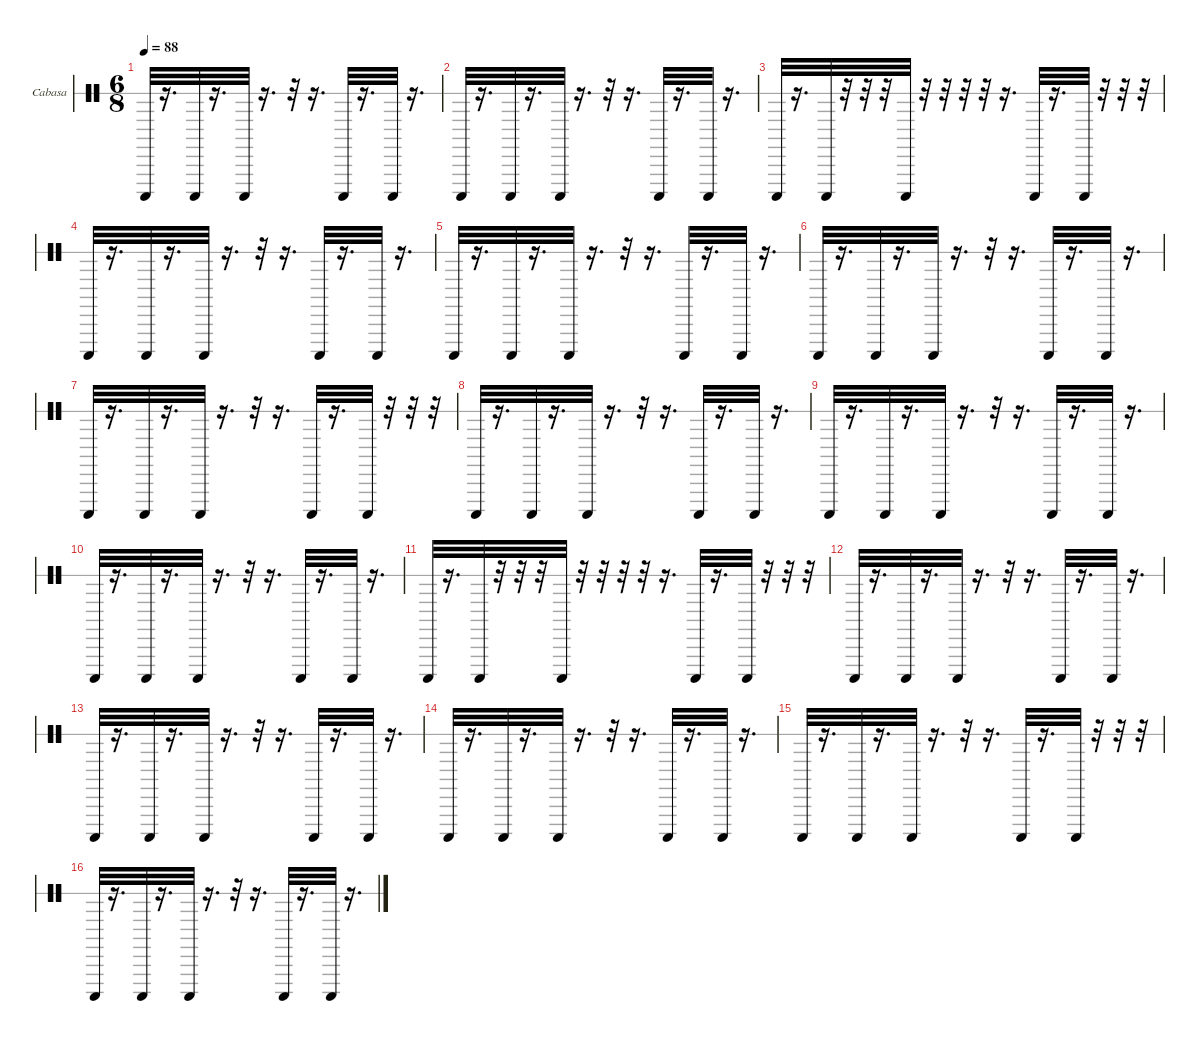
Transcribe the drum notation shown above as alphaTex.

\hideDynamics
\bracketExtendMode nobrackets
\firstSystemTrackNameOrientation horizontal
\otherSystemsTrackNameOrientation horizontal
\track ("Cabasa" "Cabasa") {instrument percussion}
\staff {score 1}
\articulation defaults
\ts (6 8)
\tempo 88
\clef neutral
\ks c "Cabasa (hit)".32{dy fff}
r.16{d} "Cabasa (hit)".32{dy mf} r.16{d} "Cabasa (hit)".32{dy mp} r.16{d} r.32 r.16{d} "Cabasa (hit)".32{dy mf} r.16{d} "Cabasa (hit)".32{dy mp} r.16{d} |
"Cabasa (hit)".32{dy fff} r.16{d} "Cabasa (hit)".32{dy mf} r.16{d} "Cabasa (hit)".32{dy mp} r.16{d} r.32 r.16{d} "Cabasa (hit)".32{dy mf} r.16{d} "Cabasa (hit)".32{dy mp} r.16{d} |
"Cabasa (hit)".32{dy fff} r.16{d} "Cabasa (hit)".32{dy mf} r.32 r.32 r.32 "Cabasa (hit)".32{dy ff} r.32 r.32 r.32 r.32 r.16{d} "Cabasa (hit)".32 r.16{d} "Cabasa (hit)".32{dy f} r.32 r.32 r.32 |
"Cabasa (hit)".32{dy fff} r.16{d} "Cabasa (hit)".32{dy mf} r.16{d} "Cabasa (hit)".32{dy mp} r.16{d} r.32 r.16{d} "Cabasa (hit)".32{dy mf} r.16{d} "Cabasa (hit)".32{dy mp} r.16{d} |
"Cabasa (hit)".32{dy fff} r.16{d} "Cabasa (hit)".32{dy mf} r.16{d} "Cabasa (hit)".32{dy mp} r.16{d} r.32 r.16{d} "Cabasa (hit)".32{dy mf} r.16{d} "Cabasa (hit)".32{dy mp} r.16{d} |
"Cabasa (hit)".32{dy fff} r.16{d} "Cabasa (hit)".32{dy mf} r.16{d} "Cabasa (hit)".32{dy mp} r.16{d} r.32 r.16{d} "Cabasa (hit)".32{dy mf} r.16{d} "Cabasa (hit)".32{dy mp} r.16{d} |
"Cabasa (hit)".32{dy fff} r.16{d} "Cabasa (hit)".32{dy mf} r.16{d} "Cabasa (hit)".32{dy mp} r.16{d} r.32 r.16{d} "Cabasa (hit)".32{dy mf} r.16{d} "Cabasa (hit)".32{dy f} r.32 r.32 r.32 |
"Cabasa (hit)".32{dy fff} r.16{d} "Cabasa (hit)".32{dy mf} r.16{d} "Cabasa (hit)".32{dy mp} r.16{d} r.32 r.16{d} "Cabasa (hit)".32{dy mf} r.16{d} "Cabasa (hit)".32{dy mp} r.16{d} |
"Cabasa (hit)".32{dy fff} r.16{d} "Cabasa (hit)".32{dy mf} r.16{d} "Cabasa (hit)".32{dy mp} r.16{d} r.32 r.16{d} "Cabasa (hit)".32{dy mf} r.16{d} "Cabasa (hit)".32{dy mp} r.16{d} |
"Cabasa (hit)".32{dy fff} r.16{d} "Cabasa (hit)".32{dy mf} r.16{d} "Cabasa (hit)".32{dy mp} r.16{d} r.32 r.16{d} "Cabasa (hit)".32{dy mf} r.16{d} "Cabasa (hit)".32{dy mp} r.16{d} |
"Cabasa (hit)".32{dy fff} r.16{d} "Cabasa (hit)".32{dy mf} r.32 r.32 r.32 "Cabasa (hit)".32{dy ff} r.32 r.32 r.32 r.32 r.16{d} "Cabasa (hit)".32 r.16{d} "Cabasa (hit)".32{dy f} r.32 r.32 r.32 |
"Cabasa (hit)".32{dy fff} r.16{d} "Cabasa (hit)".32{dy mf} r.16{d} "Cabasa (hit)".32{dy mp} r.16{d} r.32 r.16{d} "Cabasa (hit)".32{dy mf} r.16{d} "Cabasa (hit)".32{dy mp} r.16{d} |
"Cabasa (hit)".32{dy fff} r.16{d} "Cabasa (hit)".32{dy mf} r.16{d} "Cabasa (hit)".32{dy mp} r.16{d} r.32 r.16{d} "Cabasa (hit)".32{dy mf} r.16{d} "Cabasa (hit)".32{dy mp} r.16{d} |
"Cabasa (hit)".32{dy fff} r.16{d} "Cabasa (hit)".32{dy mf} r.16{d} "Cabasa (hit)".32{dy mp} r.16{d} r.32 r.16{d} "Cabasa (hit)".32{dy mf} r.16{d} "Cabasa (hit)".32{dy mp} r.16{d} |
"Cabasa (hit)".32{dy fff} r.16{d} "Cabasa (hit)".32{dy mf} r.16{d} "Cabasa (hit)".32{dy mp} r.16{d} r.32 r.16{d} "Cabasa (hit)".32{dy mf} r.16{d} "Cabasa (hit)".32{dy f} r.32 r.32 r.32 |
"Cabasa (hit)".32{dy fff} r.16{d} "Cabasa (hit)".32{dy mf} r.16{d} "Cabasa (hit)".32{dy mp} r.16{d} r.32 r.16{d} "Cabasa (hit)".32{dy mf} r.16{d} "Cabasa (hit)".32{dy mp} r.16{d}
